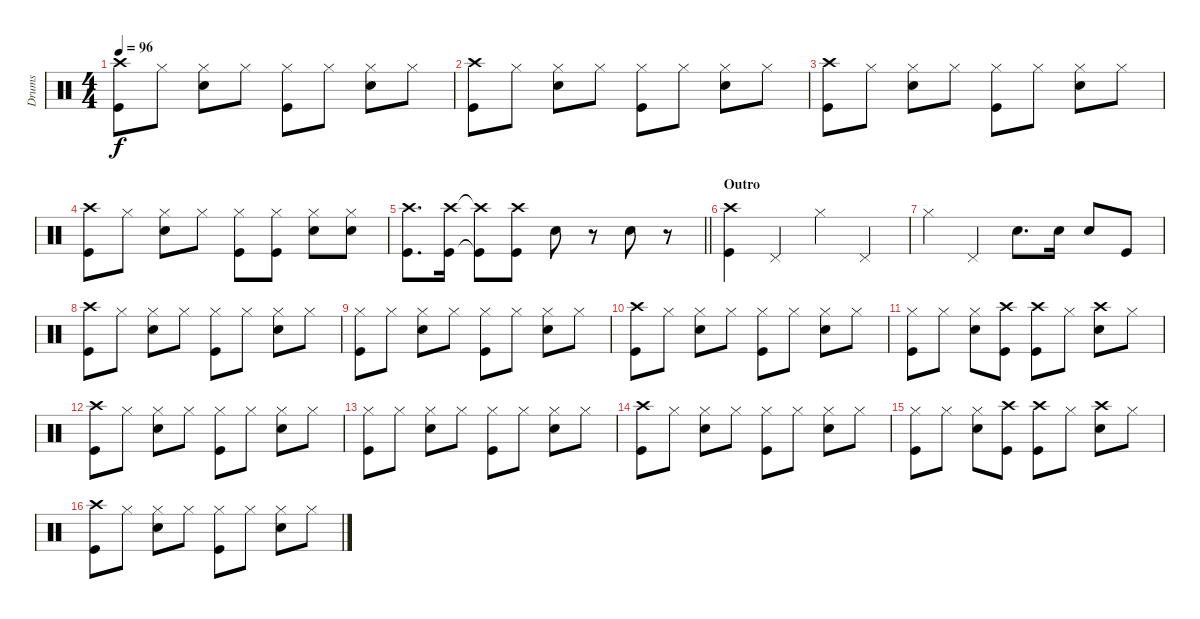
\track ("Drums" "Drums") {instrument percussion}
\staff {score}
\articulation defaults
\ts (4 4)
\tempo 96
\clef neutral
\ks c
("Crash high (hit)" "Kick (hit)").8{dy f} "Hi-Hat (closed)".8 ("Hi-Hat (closed)" "Electric Snare (hit)").8 "Hi-Hat (closed)".8 ("Hi-Hat (closed)" "Kick (hit)").8 "Hi-Hat (closed)".8 ("Hi-Hat (closed)" "Electric Snare (hit)").8 "Hi-Hat (closed)".8 |
("Crash high (hit)" "Kick (hit)").8 "Hi-Hat (closed)".8 ("Hi-Hat (closed)" "Electric Snare (hit)").8 "Hi-Hat (closed)".8 ("Hi-Hat (closed)" "Kick (hit)").8 "Hi-Hat (closed)".8 ("Hi-Hat (closed)" "Electric Snare (hit)").8 "Hi-Hat (closed)".8 |
("Crash high (hit)" "Kick (hit)").8 "Hi-Hat (closed)".8 ("Hi-Hat (closed)" "Electric Snare (hit)").8 "Hi-Hat (closed)".8 ("Hi-Hat (closed)" "Kick (hit)").8 "Hi-Hat (closed)".8 ("Hi-Hat (closed)" "Electric Snare (hit)").8 "Hi-Hat (closed)".8 |
("Crash high (hit)" "Kick (hit)").8 "Hi-Hat (closed)".8 ("Hi-Hat (closed)" "Electric Snare (hit)").8 "Hi-Hat (closed)".8 ("Hi-Hat (closed)" "Kick (hit)").8 ("Hi-Hat (closed)" "Kick (hit)").8 ("Hi-Hat (closed)" "Electric Snare (hit)").8 ("Hi-Hat (closed)" "Electric Snare (hit)").8 |
\barLineRight lightlight
("Crash high (hit)" "Kick (hit)").8{d} ("Crash high (hit)" "Kick (hit)").16 ("Crash high (hit)"{t} "Kick (hit)"{t}).8 ("Crash high (hit)" "Kick (hit)").8 "Electric Snare (hit)".8 r.8 "Electric Snare (hit)".8 r.8 |
\section ("" "Outro")
("Crash high (hit)" "Kick (hit)").4 "Pedal Hi-Hat (hit)".4 "Hi-Hat (closed)".4 "Pedal Hi-Hat (hit)".4 |
"Hi-Hat (closed)".4 "Pedal Hi-Hat (hit)".4 "Electric Snare (hit)".8{d} "Electric Snare (hit)".16 "Electric Snare (hit)".8 "Kick (hit)".8 |
("Crash high (hit)" "Kick (hit)").8 "Hi-Hat (closed)".8 ("Hi-Hat (closed)" "Electric Snare (hit)").8 "Hi-Hat (closed)".8 ("Hi-Hat (closed)" "Kick (hit)").8 "Hi-Hat (closed)".8 ("Hi-Hat (closed)" "Electric Snare (hit)").8 "Hi-Hat (closed)".8 |
("Hi-Hat (closed)" "Kick (hit)").8 "Hi-Hat (closed)".8 ("Hi-Hat (closed)" "Electric Snare (hit)").8 "Hi-Hat (closed)".8 ("Hi-Hat (closed)" "Kick (hit)").8 "Hi-Hat (closed)".8 ("Hi-Hat (closed)" "Electric Snare (hit)").8 "Hi-Hat (closed)".8 |
("Crash high (hit)" "Kick (hit)").8 "Hi-Hat (closed)".8 ("Hi-Hat (closed)" "Electric Snare (hit)").8 "Hi-Hat (closed)".8 ("Hi-Hat (closed)" "Kick (hit)").8 "Hi-Hat (closed)".8 ("Hi-Hat (closed)" "Electric Snare (hit)").8 "Hi-Hat (closed)".8 |
("Hi-Hat (closed)" "Kick (hit)").8 "Hi-Hat (closed)".8 ("Hi-Hat (closed)" "Electric Snare (hit)").8 ("Crash high (hit)" "Kick (hit)").8 ("Crash high (hit)" "Kick (hit)").8 "Hi-Hat (closed)".8 ("Crash high (hit)" "Electric Snare (hit)").8 "Hi-Hat (closed)".8 |
("Crash high (hit)" "Kick (hit)").8 "Hi-Hat (closed)".8 ("Hi-Hat (closed)" "Electric Snare (hit)").8 "Hi-Hat (closed)".8 ("Hi-Hat (closed)" "Kick (hit)").8 "Hi-Hat (closed)".8 ("Hi-Hat (closed)" "Electric Snare (hit)").8 "Hi-Hat (closed)".8 |
("Hi-Hat (closed)" "Kick (hit)").8 "Hi-Hat (closed)".8 ("Hi-Hat (closed)" "Electric Snare (hit)").8 "Hi-Hat (closed)".8 ("Hi-Hat (closed)" "Kick (hit)").8 "Hi-Hat (closed)".8 ("Hi-Hat (closed)" "Electric Snare (hit)").8 "Hi-Hat (closed)".8 |
("Crash high (hit)" "Kick (hit)").8 "Hi-Hat (closed)".8 ("Hi-Hat (closed)" "Electric Snare (hit)").8 "Hi-Hat (closed)".8 ("Hi-Hat (closed)" "Kick (hit)").8 "Hi-Hat (closed)".8 ("Hi-Hat (closed)" "Electric Snare (hit)").8 "Hi-Hat (closed)".8 |
("Hi-Hat (closed)" "Kick (hit)").8 "Hi-Hat (closed)".8 ("Hi-Hat (closed)" "Electric Snare (hit)").8 ("Crash high (hit)" "Kick (hit)").8 ("Crash high (hit)" "Kick (hit)").8 "Hi-Hat (closed)".8 ("Crash high (hit)" "Electric Snare (hit)").8 "Hi-Hat (closed)".8 |
("Crash high (hit)" "Kick (hit)").8 "Hi-Hat (closed)".8 ("Hi-Hat (closed)" "Electric Snare (hit)").8 "Hi-Hat (closed)".8 ("Hi-Hat (closed)" "Kick (hit)").8 "Hi-Hat (closed)".8 ("Hi-Hat (closed)" "Electric Snare (hit)").8 "Hi-Hat (closed)".8
